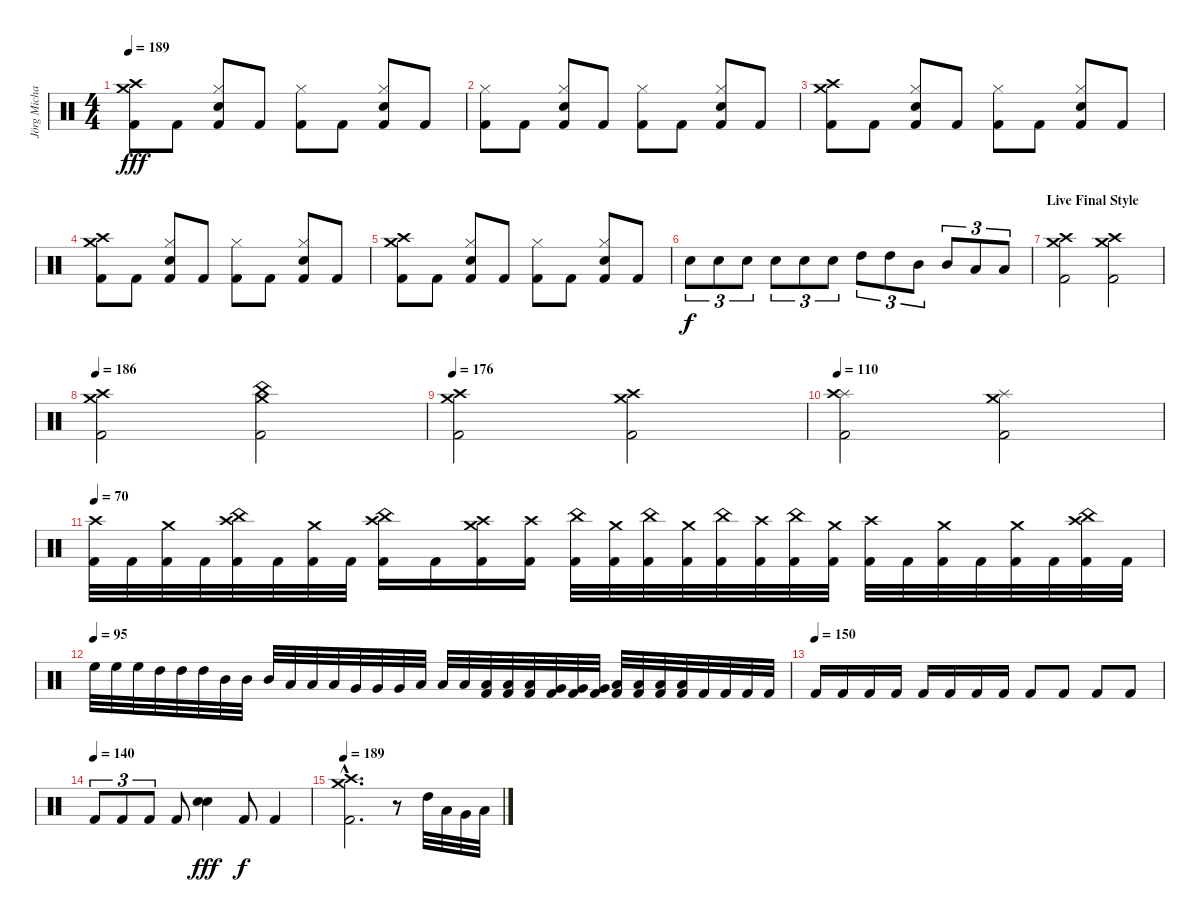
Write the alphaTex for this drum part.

\track ("Jörg Michael" "Jörg Micha") {instrument percussion}
\staff {score}
\articulation defaults
\ts (4 4)
\tempo 189
\clef neutral
\ks c
("Crash high (hit)" "Crash medium (hit)" "Kick (hit) 2").8{dy fff} "Kick (hit) 2".8 ("Hi-Hat (closed)" "Electric Snare (hit)" "Kick (hit) 2").8 "Kick (hit) 2".8 ("Hi-Hat (closed)" "Kick (hit) 2").8 "Kick (hit) 2".8 ("Hi-Hat (closed)" "Electric Snare (hit)" "Kick (hit) 2").8 "Kick (hit) 2".8 |
("Hi-Hat (closed)" "Kick (hit) 2").8 "Kick (hit) 2".8 ("Hi-Hat (closed)" "Electric Snare (hit)" "Kick (hit) 2").8 "Kick (hit) 2".8 ("Hi-Hat (closed)" "Kick (hit) 2").8 "Kick (hit) 2".8 ("Hi-Hat (closed)" "Electric Snare (hit)" "Kick (hit) 2").8 "Kick (hit) 2".8 |
("Crash high (hit)" "Crash medium (hit)" "Kick (hit) 2").8 "Kick (hit) 2".8 ("Hi-Hat (closed)" "Electric Snare (hit)" "Kick (hit) 2").8 "Kick (hit) 2".8 ("Hi-Hat (closed)" "Kick (hit) 2").8 "Kick (hit) 2".8 ("Hi-Hat (closed)" "Electric Snare (hit)" "Kick (hit) 2").8 "Kick (hit) 2".8 |
("Crash high (hit)" "Crash medium (hit)" "Kick (hit) 2").8 "Kick (hit) 2".8 ("Hi-Hat (closed)" "Electric Snare (hit)" "Kick (hit) 2").8 "Kick (hit) 2".8 ("Hi-Hat (closed)" "Kick (hit) 2").8 "Kick (hit) 2".8 ("Hi-Hat (closed)" "Electric Snare (hit)" "Kick (hit) 2").8 "Kick (hit) 2".8 |
("Crash high (hit)" "Crash medium (hit)" "Kick (hit) 2").8 "Kick (hit) 2".8 ("Hi-Hat (closed)" "Electric Snare (hit)" "Kick (hit) 2").8 "Kick (hit) 2".8 ("Hi-Hat (closed)" "Kick (hit) 2").8 "Kick (hit) 2".8 ("Hi-Hat (closed)" "Electric Snare (hit)" "Kick (hit) 2").8 "Kick (hit) 2".8 |
"Electric Snare (hit)".8{tu (3 2) dy f} "Electric Snare (hit)".8{tu (3 2)} "Electric Snare (hit)".8{tu (3 2)} "Electric Snare (hit)".8{tu (3 2)} "Electric Snare (hit)".8{tu (3 2)} "Electric Snare (hit)".8{tu (3 2)} "High Tom (hit)".8{tu (3 2)} "High Tom (hit)".8{tu (3 2)} "Mid Tom (hit)".8{tu (3 2)} "Mid Tom (hit)".8{tu (3 2)} "Low Tom (hit)".8{tu (3 2)} "Low Tom (hit)".8{tu (3 2)} |
\section ("" "Live Final Style")
("Crash medium (hit)" "Crash high (hit)" "Kick (hit) 2").2 ("Crash high (hit)" "Crash medium (hit)" "Kick (hit) 2").2 |
\tempo 186
("Crash medium (hit)" "Crash high (hit)" "Kick (hit) 2").2 ("China (hit)" "Crash medium (hit)" "Kick (hit) 2").2 |
\tempo 176
("Crash medium (hit)" "Crash high (hit)" "Kick (hit) 2").2 ("Crash high (hit)" "Crash medium (hit)" "Kick (hit) 2").2 |
\tempo 110
("Splash (hit)" "Crash high (hit)" "Kick (hit) 2").2 ("Splash (hit)" "Crash medium (hit)" "Kick (hit) 2").2 |
\tempo 70
("Crash high (hit)" "Kick (hit) 2").32 "Kick (hit) 2".32 ("Crash medium (hit)" "Kick (hit) 2").32 "Kick (hit) 2".32 ("China (hit)" "Crash high (hit)" "Kick (hit) 2").32 "Kick (hit) 2".32 ("Crash medium (hit)" "Kick (hit) 2").32 "Kick (hit) 2".32 ("Crash high (hit)" "China (hit)" "Kick (hit) 2").16 "Kick (hit) 2".16 ("Crash high (hit)" "Crash medium (hit)" "Kick (hit) 2").16 ("Crash high (hit)" "Kick (hit) 2").16 ("China (hit)" "Kick (hit) 2").32 ("Crash medium (hit)" "Kick (hit) 2").32 ("China (hit)" "Kick (hit) 2").32 ("Crash medium (hit)" "Kick (hit) 2").32 ("China (hit)" "Kick (hit) 2").32 ("Crash high (hit)" "Kick (hit) 2").32 ("China (hit)" "Kick (hit) 2").32 ("Crash medium (hit)" "Kick (hit) 2").32 ("Crash high (hit)" "Kick (hit) 2").32 "Kick (hit) 2".32 ("Crash medium (hit)" "Kick (hit) 2").32 "Kick (hit) 2".32 ("Crash medium (hit)" "Kick (hit) 2").32 "Kick (hit) 2".32 ("China (hit)" "Crash high (hit)" "Kick (hit) 2").32 "Kick (hit) 2".32 |
\tempo (95)
"High Floor Tom (hit)".32 "High Floor Tom (hit)".32 "High Floor Tom (hit)".32 "High Tom (hit)".32 "High Tom (hit)".32 "High Tom (hit)".32 "Mid Tom (hit)".32 "Mid Tom (hit)".32 "Mid Tom (hit)".32 "Low Tom (hit)".32 "Low Tom (hit)".32 "Low Tom (hit)".32 "Very Low Tom (hit)".32 "Very Low Tom (hit)".32 "Very Low Tom (hit)".32 "Low Floor Tom (hit)".32 "Low Floor Tom (hit)".32 "Low Floor Tom (hit)".32 ("Kick (hit) 2" "Low Tom (hit)").32 ("Kick (hit) 2" "Low Tom (hit)").32 ("Kick (hit) 2" "Low Tom (hit)").32 ("Kick (hit) 2" "Very Low Tom (hit)").32 ("Kick (hit) 2" "Very Low Tom (hit)").32 ("Kick (hit) 2" "Very Low Tom (hit)").32 ("Kick (hit) 2" "Low Floor Tom (hit)").32 ("Kick (hit) 2" "Low Floor Tom (hit)").32 ("Kick (hit) 2" "Low Floor Tom (hit)").32 ("Kick (hit) 2" "Low Floor Tom (hit)").32 "Kick (hit) 2".32 "Kick (hit) 2".32 "Kick (hit) 2".32 "Kick (hit) 2".32 |
\tempo (150)
"Kick (hit) 2".16 "Kick (hit) 2".16 "Kick (hit) 2".16 "Kick (hit) 2".16 "Kick (hit) 2".16 "Kick (hit) 2".16 "Kick (hit) 2".16 "Kick (hit) 2".16 "Kick (hit) 2".8 "Kick (hit) 2".8 "Kick (hit) 2".8 "Kick (hit) 2".8 |
\tempo 95
\tempo (140)
"Kick (hit) 2".8{tu (3 2)} "Kick (hit) 2".8{tu (3 2)} "Kick (hit) 2".8{tu (3 2)} "Kick (hit) 2".8 ("Electric Snare (hit)" "Electric Snare (hit)").4{dy fff} "Kick (hit) 2".8{dy f} "Kick (hit) 2".4 |
\tempo 189
("Crash medium (hit)"{hac} "Crash high (hit)"{hac} "Kick (hit) 2"{hac}).2{d} r.8 "High Tom (hit)".32 "Low Tom (hit)".32 "Very Low Tom (hit)".32 "Low Floor Tom (hit)".32
